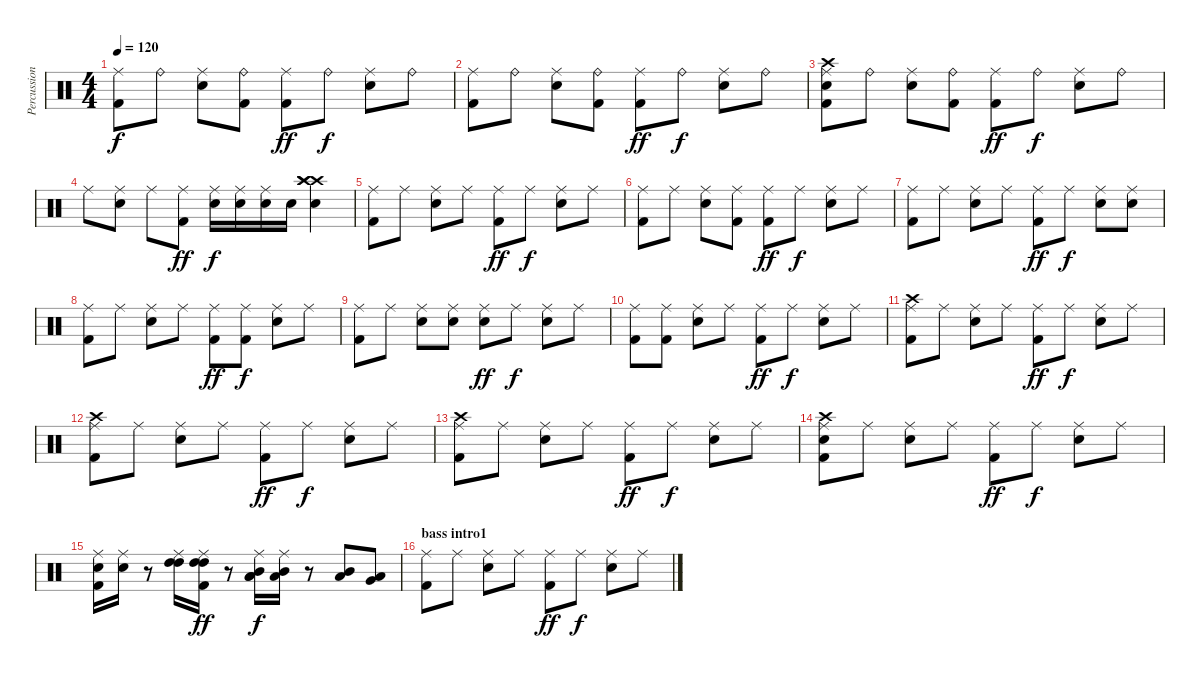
\track ("Percussioni" "Percussion") {instrument percussion}
\staff {score}
\articulation defaults
\ts (4 4)
\tempo 120
\clef neutral
\ks c
("Kick (hit) 2" "Ride (middle)").8{dy f} "Ride (bell)".8 ("Electric Snare (hit)" "Ride (middle)").8 ("Kick (hit) 2" "Ride (bell)").8 ("Kick (hit) 2" "Ride (middle)").8{dy ff} "Ride (bell)".8{dy f} ("Electric Snare (hit)" "Ride (middle)").8 "Ride (bell)".8 |
("Kick (hit) 2" "Ride (middle)").8 "Ride (bell)".8 ("Electric Snare (hit)" "Ride (middle)").8 ("Kick (hit) 2" "Ride (bell)").8 ("Kick (hit) 2" "Ride (middle)").8{dy ff} "Ride (bell)".8{dy f} ("Electric Snare (hit)" "Ride (middle)").8 "Ride (bell)".8 |
("Crash high (hit)" "Electric Snare (hit)" "Kick (hit) 2" "Ride (middle)").8 "Ride (bell)".8 ("Electric Snare (hit)" "Ride (middle)").8 ("Kick (hit) 2" "Ride (bell)").8 ("Kick (hit) 2" "Ride (middle)").8{dy ff} "Ride (bell)".8{dy f} ("Electric Snare (hit)" "Ride (middle)").8 "Ride (bell)".8 |
"Ride (middle)".8 ("Electric Snare (hit)" "Ride (middle)").8 "Ride (middle)".8 ("Kick (hit) 2" "Ride (middle)").8{dy ff} ("Electric Snare (hit)" "Ride (middle)").16{dy f} ("Electric Snare (hit)" "Ride (middle)").16 ("Electric Snare (hit)" "Ride (middle)").16 "Electric Snare (hit)".16 ("Crash high (hit)" "Crash high (hit)" "Crash high (hit)" "Electric Snare (hit)").4 |
("Kick (hit) 2" "Ride (middle)").8 "Ride (middle)".8 ("Electric Snare (hit)" "Ride (middle)").8 "Ride (middle)".8 ("Kick (hit) 2" "Ride (middle)").8{dy ff} "Ride (middle)".8{dy f} ("Electric Snare (hit)" "Ride (middle)").8 "Ride (middle)".8 |
("Kick (hit) 2" "Ride (middle)").8 "Ride (middle)".8 ("Electric Snare (hit)" "Ride (middle)").8 ("Kick (hit) 2" "Ride (middle)").8 ("Kick (hit) 2" "Ride (middle)").8{dy ff} "Ride (middle)".8{dy f} ("Electric Snare (hit)" "Ride (middle)").8 "Ride (middle)".8 |
("Kick (hit) 2" "Ride (middle)").8 "Ride (middle)".8 ("Electric Snare (hit)" "Ride (middle)").8 "Ride (middle)".8 ("Kick (hit) 2" "Ride (middle)").8{dy ff} "Ride (middle)".8{dy f} ("Electric Snare (hit)" "Ride (middle)").8 ("Electric Snare (hit)" "Ride (middle)").8 |
("Kick (hit) 2" "Ride (middle)").8 "Ride (middle)".8 ("Electric Snare (hit)" "Ride (middle)").8 "Ride (middle)".8 ("Kick (hit) 2" "Ride (middle)").8{dy ff} ("Kick (hit) 2" "Ride (middle)").8{dy f} ("Electric Snare (hit)" "Ride (middle)").8 "Ride (middle)".8 |
("Kick (hit) 2" "Ride (middle)").8 "Ride (middle)".8 ("Electric Snare (hit)" "Ride (middle)").8 ("Electric Snare (hit)" "Ride (middle)").8 ("Snare (hit) 2" "Ride (middle)").8{dy ff} "Ride (middle)".8{dy f} ("Electric Snare (hit)" "Ride (middle)").8 "Ride (middle)".8 |
("Kick (hit) 2" "Ride (middle)").8 ("Kick (hit) 2" "Ride (middle)").8 ("Electric Snare (hit)" "Ride (middle)").8 "Ride (middle)".8 ("Kick (hit) 2" "Ride (middle)").8{dy ff} "Ride (middle)".8{dy f} ("Electric Snare (hit)" "Ride (middle)").8 "Ride (middle)".8 |
("Crash high (hit)" "Kick (hit) 2" "Ride (middle)").8 "Ride (middle)".8 ("Electric Snare (hit)" "Ride (middle)").8 "Ride (middle)".8 ("Kick (hit) 2" "Ride (middle)").8{dy ff} "Ride (middle)".8{dy f} ("Electric Snare (hit)" "Ride (middle)").8 "Ride (middle)".8 |
("Crash high (hit)" "Kick (hit) 2" "Ride (middle)").8 "Ride (middle)".8 ("Electric Snare (hit)" "Ride (middle)").8 "Ride (middle)".8 ("Kick (hit) 2" "Ride (middle)").8{dy ff} "Ride (middle)".8{dy f} ("Electric Snare (hit)" "Ride (middle)").8 "Ride (middle)".8 |
("Crash high (hit)" "Kick (hit) 2" "Ride (middle)").8 "Ride (middle)".8 ("Electric Snare (hit)" "Ride (middle)").8 "Ride (middle)".8 ("Kick (hit) 2" "Ride (middle)").8{dy ff} "Ride (middle)".8{dy f} ("Electric Snare (hit)" "Ride (middle)").8 "Ride (middle)".8 |
("Electric Snare (hit)" "Crash high (hit)" "Kick (hit) 2" "Ride (middle)").8 "Ride (middle)".8 ("Electric Snare (hit)" "Ride (middle)").8 "Ride (middle)".8 ("Kick (hit) 2" "Ride (middle)").8{dy ff} "Ride (middle)".8{dy f} ("Electric Snare (hit)" "Ride (middle)").8 "Ride (middle)".8 |
("Electric Snare (hit)" "Kick (hit) 2" "Ride (middle)").16{bd 480} ("Electric Snare (hit)" "Ride (middle)").16{bd 480} r.8 ("High Tom (hit)" "High Tom (hit)" "Ride (middle)").16{bd 480} ("High Tom (hit)" "High Tom (hit)" "Kick (hit) 2" "Ride (middle)").16{bd 480 dy ff} r.8 ("Low Tom (hit)" "Low Tom (hit)" "Mid Tom (hit)" "Ride (middle)").16{bd 480 dy f} ("Low Tom (hit)" "Mid Tom (hit)" "Ride (middle)").16{bd 480} r.8 ("Mid Tom (hit)" "Low Tom (hit)").8{bd 480} ("Low Tom (hit)" "Very Low Tom (hit)").8 |
\section ("" "bass intro1")
("Kick (hit) 2" "Ride (middle)").8 "Ride (middle)".8 ("Electric Snare (hit)" "Ride (middle)").8 "Ride (middle)".8 ("Kick (hit) 2" "Ride (middle)").8{dy ff} "Ride (middle)".8{dy f} ("Electric Snare (hit)" "Ride (middle)").8 "Ride (middle)".8
